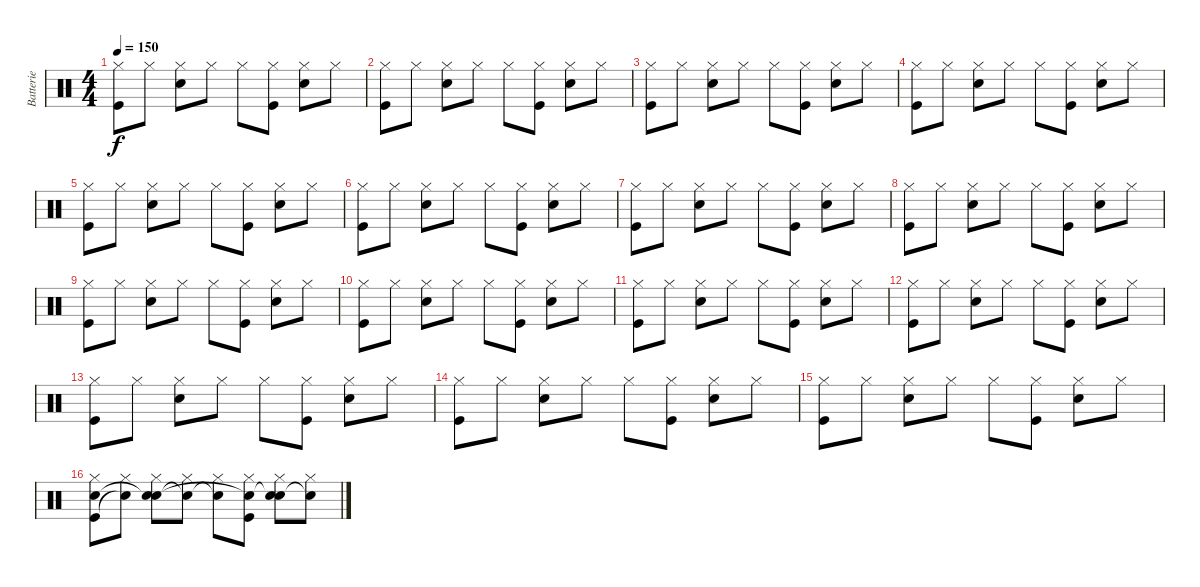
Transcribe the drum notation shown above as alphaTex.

\track ("Batterie" "Batterie") {instrument percussion}
\staff {score}
\articulation defaults
\ts (4 4)
\tempo 150
\clef neutral
\ks c
("Hi-Hat (closed)" "Kick (hit)").8{dy f} "Hi-Hat (closed)".8 ("Hi-Hat (closed)" "Snare (hit) 2").8 "Hi-Hat (closed)".8 "Hi-Hat (closed)".8 ("Hi-Hat (closed)" "Kick (hit)").8 ("Hi-Hat (closed)" "Snare (hit) 2").8 "Hi-Hat (closed)".8 |
("Hi-Hat (closed)" "Kick (hit)").8 "Hi-Hat (closed)".8 ("Hi-Hat (closed)" "Snare (hit) 2").8 "Hi-Hat (closed)".8 "Hi-Hat (closed)".8 ("Hi-Hat (closed)" "Kick (hit)").8 ("Hi-Hat (closed)" "Snare (hit) 2").8 "Hi-Hat (closed)".8 |
("Hi-Hat (closed)" "Kick (hit)").8 "Hi-Hat (closed)".8 ("Hi-Hat (closed)" "Snare (hit) 2").8 "Hi-Hat (closed)".8 "Hi-Hat (closed)".8 ("Hi-Hat (closed)" "Kick (hit)").8 ("Hi-Hat (closed)" "Snare (hit) 2").8 "Hi-Hat (closed)".8 |
("Hi-Hat (closed)" "Kick (hit)").8 "Hi-Hat (closed)".8 ("Hi-Hat (closed)" "Snare (hit) 2").8 "Hi-Hat (closed)".8 "Hi-Hat (closed)".8 ("Hi-Hat (closed)" "Kick (hit)").8 ("Hi-Hat (closed)" "Snare (hit) 2").8 "Hi-Hat (closed)".8 |
("Hi-Hat (closed)" "Kick (hit)").8 "Hi-Hat (closed)".8 ("Hi-Hat (closed)" "Snare (hit) 2").8 "Hi-Hat (closed)".8 "Hi-Hat (closed)".8 ("Hi-Hat (closed)" "Kick (hit)").8 ("Hi-Hat (closed)" "Snare (hit) 2").8 "Hi-Hat (closed)".8 |
("Hi-Hat (closed)" "Kick (hit)").8 "Hi-Hat (closed)".8 ("Hi-Hat (closed)" "Snare (hit) 2").8 "Hi-Hat (closed)".8 "Hi-Hat (closed)".8 ("Hi-Hat (closed)" "Kick (hit)").8 ("Hi-Hat (closed)" "Snare (hit) 2").8 "Hi-Hat (closed)".8 |
("Hi-Hat (closed)" "Kick (hit)").8 "Hi-Hat (closed)".8 ("Hi-Hat (closed)" "Snare (hit) 2").8 "Hi-Hat (closed)".8 "Hi-Hat (closed)".8 ("Hi-Hat (closed)" "Kick (hit)").8 ("Hi-Hat (closed)" "Snare (hit) 2").8 "Hi-Hat (closed)".8 |
("Hi-Hat (closed)" "Kick (hit)").8 "Hi-Hat (closed)".8 ("Hi-Hat (closed)" "Snare (hit) 2").8 "Hi-Hat (closed)".8 "Hi-Hat (closed)".8 ("Hi-Hat (closed)" "Kick (hit)").8 ("Hi-Hat (closed)" "Snare (hit) 2").8 "Hi-Hat (closed)".8 |
("Hi-Hat (closed)" "Kick (hit)").8 "Hi-Hat (closed)".8 ("Hi-Hat (closed)" "Snare (hit) 2").8 "Hi-Hat (closed)".8 "Hi-Hat (closed)".8 ("Hi-Hat (closed)" "Kick (hit)").8 ("Hi-Hat (closed)" "Snare (hit) 2").8 "Hi-Hat (closed)".8 |
("Hi-Hat (closed)" "Kick (hit)").8 "Hi-Hat (closed)".8 ("Hi-Hat (closed)" "Snare (hit) 2").8 "Hi-Hat (closed)".8 "Hi-Hat (closed)".8 ("Hi-Hat (closed)" "Kick (hit)").8 ("Hi-Hat (closed)" "Snare (hit) 2").8 "Hi-Hat (closed)".8 |
("Hi-Hat (closed)" "Kick (hit)").8 "Hi-Hat (closed)".8 ("Hi-Hat (closed)" "Snare (hit) 2").8 "Hi-Hat (closed)".8 "Hi-Hat (closed)".8 ("Hi-Hat (closed)" "Kick (hit)").8 ("Hi-Hat (closed)" "Snare (hit) 2").8 "Hi-Hat (closed)".8 |
("Hi-Hat (closed)" "Kick (hit)").8 "Hi-Hat (closed)".8 ("Hi-Hat (closed)" "Snare (hit) 2").8 "Hi-Hat (closed)".8 "Hi-Hat (closed)".8 ("Hi-Hat (closed)" "Kick (hit)").8 ("Hi-Hat (closed)" "Snare (hit) 2").8 "Hi-Hat (closed)".8 |
("Hi-Hat (closed)" "Kick (hit)").8 "Hi-Hat (closed)".8 ("Hi-Hat (closed)" "Snare (hit) 2").8 "Hi-Hat (closed)".8 "Hi-Hat (closed)".8 ("Hi-Hat (closed)" "Kick (hit)").8 ("Hi-Hat (closed)" "Snare (hit) 2").8 "Hi-Hat (closed)".8 |
("Hi-Hat (closed)" "Kick (hit)").8 "Hi-Hat (closed)".8 ("Hi-Hat (closed)" "Snare (hit) 2").8 "Hi-Hat (closed)".8 "Hi-Hat (closed)".8 ("Hi-Hat (closed)" "Kick (hit)").8 ("Hi-Hat (closed)" "Snare (hit) 2").8 "Hi-Hat (closed)".8 |
("Hi-Hat (closed)" "Kick (hit)").8 "Hi-Hat (closed)".8 ("Hi-Hat (closed)" "Snare (hit) 2").8 "Hi-Hat (closed)".8 "Hi-Hat (closed)".8 ("Hi-Hat (closed)" "Kick (hit)").8 ("Hi-Hat (closed)" "Snare (hit) 2").8 "Hi-Hat (closed)".8 |
("Hi-Hat (closed)" "Kick (hit)" "Snare (hit)").8 ("Hi-Hat (closed)" "Snare (hit)"{t}).8 ("Hi-Hat (closed)" "Snare (hit) 2" "Snare (hit)"{t}).8 ("Hi-Hat (closed)" "Snare (hit)"{t}).8 ("Hi-Hat (closed)" "Snare (hit)"{t}).8 ("Hi-Hat (closed)" "Kick (hit)" "Snare (hit)"{t}).8 ("Hi-Hat (closed)" "Snare (hit) 2" "Snare (hit)"{t}).8 ("Hi-Hat (closed)" "Snare (hit)"{t}).8
